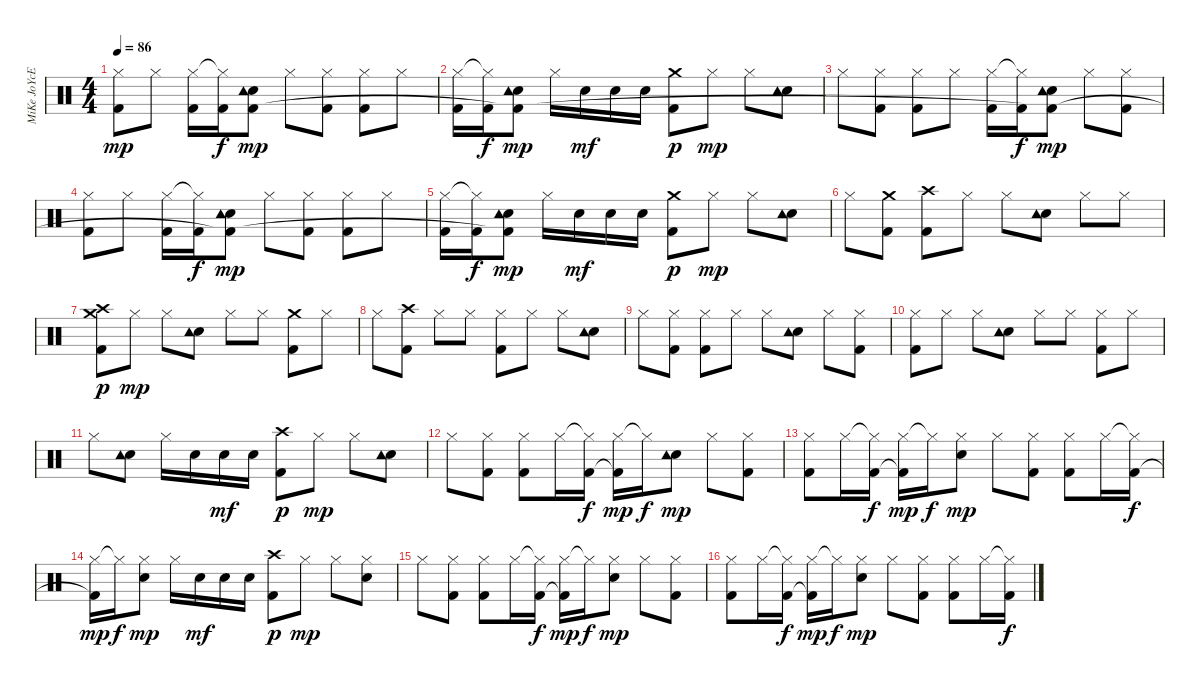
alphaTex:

\track ("MiKe JoYcE" "MiKe JoYcE") {instrument percussion}
\staff {score}
\articulation defaults
\ts (4 4)
\tempo 86
\clef neutral
\ks c
("Hi-Hat (closed)" "Kick (hit) 2").8{dy mp} "Hi-Hat (closed)".8 ("Hi-Hat (closed)" "Kick (hit) 2").16 ("Hi-Hat (closed)"{t} "Kick (hit) 2").16{dy f} ("Electric Snare (hit)" "Tambourine (hit)" "Kick (hit) 2"{t}).8{dy mp} "Hi-Hat (closed)".8 ("Hi-Hat (closed)" "Kick (hit) 2").8 ("Hi-Hat (closed)" "Kick (hit) 2").8 "Hi-Hat (closed)".8 |
("Hi-Hat (closed)" "Kick (hit) 2").16 ("Hi-Hat (closed)"{t} "Kick (hit) 2").16{dy f} ("Electric Snare (hit)" "Tambourine (hit)" "Kick (hit) 2"{t}).8{dy mp} "Hi-Hat (closed)".16 "Electric Snare (hit)".16{dy mf} "Electric Snare (hit)".16 "Electric Snare (hit)".16 ("Crash medium (hit)" "Kick (hit) 2").8{dy p} "Hi-Hat (closed)".8{dy mp} "Hi-Hat (closed)".8 ("Electric Snare (hit)" "Tambourine (hit)").8 |
"Hi-Hat (closed)".8 ("Hi-Hat (closed)" "Kick (hit) 2").8 ("Hi-Hat (closed)" "Kick (hit) 2").8 "Hi-Hat (closed)".8 ("Hi-Hat (closed)" "Kick (hit) 2").16 ("Hi-Hat (closed)"{t} "Kick (hit) 2").16{dy f} ("Electric Snare (hit)" "Tambourine (hit)" "Kick (hit) 2"{t}).8{dy mp} "Hi-Hat (closed)".8 ("Hi-Hat (closed)" "Kick (hit) 2").8 |
("Hi-Hat (closed)" "Kick (hit) 2").8 "Hi-Hat (closed)".8 ("Hi-Hat (closed)" "Kick (hit) 2").16 ("Hi-Hat (closed)"{t} "Kick (hit) 2").16{dy f} ("Electric Snare (hit)" "Tambourine (hit)" "Kick (hit) 2"{t}).8{dy mp} "Hi-Hat (closed)".8 ("Hi-Hat (closed)" "Kick (hit) 2").8 ("Hi-Hat (closed)" "Kick (hit) 2").8 "Hi-Hat (closed)".8 |
("Hi-Hat (closed)" "Kick (hit) 2").16 ("Hi-Hat (closed)"{t} "Kick (hit) 2").16{dy f} ("Electric Snare (hit)" "Tambourine (hit)" "Kick (hit) 2"{t}).8{dy mp} "Hi-Hat (closed)".16 "Electric Snare (hit)".16{dy mf} "Electric Snare (hit)".16 "Electric Snare (hit)".16 ("Crash medium (hit)" "Kick (hit) 2").8{dy p} "Hi-Hat (closed)".8{dy mp} "Hi-Hat (closed)".8 ("Electric Snare (hit)" "Tambourine (hit)").8 |
"Hi-Hat (closed)".8 ("Crash medium (hit)" "Kick (hit) 2").8 ("Crash high (hit)" "Kick (hit) 2").8 "Hi-Hat (closed)".8 "Hi-Hat (closed)".8 ("Electric Snare (hit)" "Tambourine (hit)").8 "Hi-Hat (closed)".8 "Hi-Hat (closed)".8 |
("Crash high (hit)" "Crash medium (hit)" "Kick (hit) 2").8{dy p} "Hi-Hat (closed)".8{dy mp} "Hi-Hat (closed)".8 ("Electric Snare (hit)" "Tambourine (hit)").8 "Hi-Hat (closed)".8 "Hi-Hat (closed)".8 ("Crash medium (hit)" "Kick (hit) 2").8 "Hi-Hat (closed)".8 |
"Hi-Hat (closed)".8 ("Crash high (hit)" "Kick (hit) 2").8 "Hi-Hat (closed)".8 "Hi-Hat (closed)".8 ("Hi-Hat (closed)" "Kick (hit) 2").8 "Hi-Hat (closed)".8 "Hi-Hat (closed)".8 ("Electric Snare (hit)" "Tambourine (hit)").8 |
"Hi-Hat (closed)".8 ("Hi-Hat (closed)" "Kick (hit) 2").8 ("Hi-Hat (closed)" "Kick (hit) 2").8 "Hi-Hat (closed)".8 "Hi-Hat (closed)".8 ("Electric Snare (hit)" "Tambourine (hit)").8 "Hi-Hat (closed)".8 ("Hi-Hat (closed)" "Kick (hit) 2").8 |
("Hi-Hat (closed)" "Kick (hit) 2").8 "Hi-Hat (closed)".8 "Hi-Hat (closed)".8 ("Electric Snare (hit)" "Tambourine (hit)").8 "Hi-Hat (closed)".8 "Hi-Hat (closed)".8 ("Hi-Hat (closed)" "Kick (hit) 2").8 "Hi-Hat (closed)".8 |
"Hi-Hat (closed)".8 ("Electric Snare (hit)" "Tambourine (hit)").8 "Hi-Hat (closed)".16 "Electric Snare (hit)".16 "Electric Snare (hit)".16{dy mf} "Electric Snare (hit)".16 ("Crash high (hit)" "Kick (hit) 2").8{dy p} "Hi-Hat (closed)".8{dy mp} "Hi-Hat (closed)".8 ("Electric Snare (hit)" "Tambourine (hit)").8 |
"Hi-Hat (closed)".8 ("Hi-Hat (closed)" "Kick (hit) 2").8 ("Hi-Hat (closed)" "Kick (hit) 2").8 "Hi-Hat (closed)".16 ("Hi-Hat (closed)"{t} "Kick (hit) 2").16{dy f} ("Hi-Hat (closed)" "Kick (hit) 2"{t}).16{dy mp} "Hi-Hat (closed)"{t}.16{dy f} ("Electric Snare (hit)" "Tambourine (hit)").8{dy mp} "Hi-Hat (closed)".8 ("Hi-Hat (closed)" "Kick (hit) 2").8 |
("Hi-Hat (closed)" "Kick (hit) 2").8 "Hi-Hat (closed)".16 ("Hi-Hat (closed)"{t} "Kick (hit) 2").16{dy f} ("Hi-Hat (closed)" "Kick (hit) 2"{t}).16{dy mp} "Hi-Hat (closed)"{t}.16{dy f} ("Hi-Hat (closed)" "Electric Snare (hit)").8{dy mp} "Hi-Hat (closed)".8 ("Hi-Hat (closed)" "Kick (hit) 2").8 ("Hi-Hat (closed)" "Kick (hit) 2").8 "Hi-Hat (closed)".16 ("Hi-Hat (closed)"{t} "Kick (hit) 2").16{dy f} |
("Hi-Hat (closed)" "Kick (hit) 2"{t}).16{dy mp} "Hi-Hat (closed)"{t}.16{dy f} ("Hi-Hat (closed)" "Electric Snare (hit)").8{dy mp} "Hi-Hat (closed)".16 "Electric Snare (hit)".16{dy mf} "Electric Snare (hit)".16 "Electric Snare (hit)".16 ("Crash high (hit)" "Kick (hit) 2").8{dy p} "Hi-Hat (closed)".8{dy mp} "Hi-Hat (closed)".8 ("Hi-Hat (closed)" "Electric Snare (hit)").8 |
"Hi-Hat (closed)".8 ("Hi-Hat (closed)" "Kick (hit) 2").8 ("Hi-Hat (closed)" "Kick (hit) 2").8 "Hi-Hat (closed)".16 ("Hi-Hat (closed)"{t} "Kick (hit) 2").16{dy f} ("Hi-Hat (closed)" "Kick (hit) 2"{t}).16{dy mp} "Hi-Hat (closed)"{t}.16{dy f} ("Hi-Hat (closed)" "Electric Snare (hit)").8{dy mp} "Hi-Hat (closed)".8 ("Hi-Hat (closed)" "Kick (hit) 2").8 |
("Hi-Hat (closed)" "Kick (hit) 2").8 "Hi-Hat (closed)".16 ("Hi-Hat (closed)"{t} "Kick (hit) 2").16{dy f} ("Hi-Hat (closed)" "Kick (hit) 2"{t}).16{dy mp} "Hi-Hat (closed)"{t}.16{dy f} ("Hi-Hat (closed)" "Electric Snare (hit)").8{dy mp} "Hi-Hat (closed)".8 ("Hi-Hat (closed)" "Kick (hit) 2").8 ("Hi-Hat (closed)" "Kick (hit) 2").8 "Hi-Hat (closed)".16 ("Hi-Hat (closed)"{t} "Kick (hit) 2").16{dy f}
